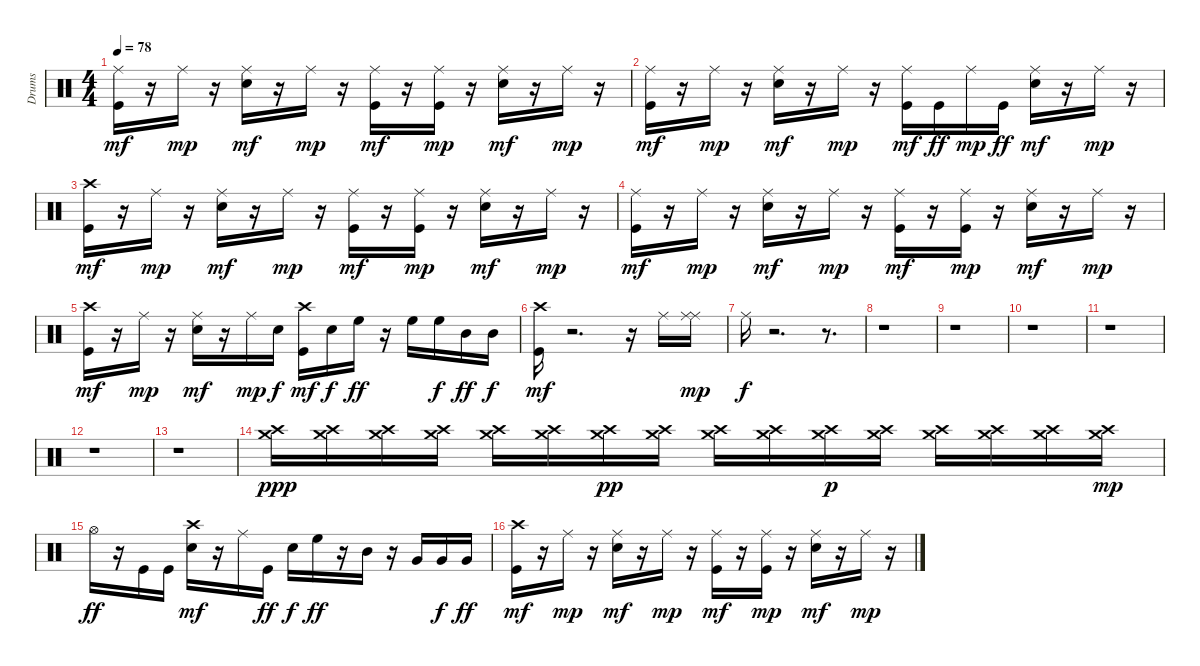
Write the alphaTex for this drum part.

\track ("Drums" "Drums") {instrument percussion}
\staff {score}
\articulation defaults
\ts (4 4)
\tempo 78
\clef neutral
\ks c
("Kick (hit)" "Ride (middle)").16{dy mf} r.16 "Ride (middle)".16{dy mp} r.16 ("Snare (hit) 2" "Ride (middle)").16{dy mf} r.16 "Ride (middle)".16{dy mp} r.16 ("Kick (hit)" "Ride (middle)").16{dy mf} r.16 ("Kick (hit)" "Ride (middle)").16{dy mp} r.16 ("Snare (hit) 2" "Ride (middle)").16{dy mf} r.16 "Ride (middle)".16{dy mp} r.16 |
("Kick (hit)" "Ride (middle)").16{dy mf} r.16 "Ride (middle)".16{dy mp} r.16 ("Snare (hit) 2" "Ride (middle)").16{dy mf} r.16 "Ride (middle)".16{dy mp} r.16 ("Kick (hit)" "Ride (middle)").16{dy mf} "Kick (hit)".16{dy ff} "Ride (middle)".16{dy mp} "Kick (hit)".16{dy ff} ("Snare (hit) 2" "Ride (middle)").16{dy mf} r.16 "Ride (middle)".16{dy mp} r.16 |
("Kick (hit)" "Crash high (hit)").16{dy mf} r.16 "Ride (middle)".16{dy mp} r.16 ("Snare (hit) 2" "Ride (middle)").16{dy mf} r.16 "Ride (middle)".16{dy mp} r.16 ("Kick (hit)" "Ride (middle)").16{dy mf} r.16 ("Kick (hit)" "Ride (middle)").16{dy mp} r.16 ("Snare (hit) 2" "Ride (middle)").16{dy mf} r.16 "Ride (middle)".16{dy mp} r.16 |
("Kick (hit)" "Ride (middle)").16{dy mf} r.16 "Ride (middle)".16{dy mp} r.16 ("Snare (hit) 2" "Ride (middle)").16{dy mf} r.16 "Ride (middle)".16{dy mp} r.16 ("Kick (hit)" "Ride (middle)").16{dy mf} r.16 ("Kick (hit)" "Ride (middle)").16{dy mp} r.16 ("Snare (hit) 2" "Ride (middle)").16{dy mf} r.16 "Ride (middle)".16{dy mp} r.16 |
("Kick (hit)" "Crash high (hit)").16{dy mf} r.16 "Ride (middle)".16{dy mp} r.16 ("Snare (hit) 2" "Ride (middle)").16{dy mf} r.16 "Ride (middle)".16{dy mp} "Snare (hit) 2".16{dy f} ("Kick (hit)" "Crash high (hit)").16{dy mf} "Snare (hit) 2".16{dy f} "High Floor Tom (hit)".16{dy ff} r.16 "High Floor Tom (hit)".16 "High Floor Tom (hit)".16{dy f} "Mid Tom (hit)".16{dy ff} "Mid Tom (hit)".16{dy f} |
("Kick (hit)" "Crash high (hit)").16{dy mf} r.2{d} r.16 "Ride (middle)".16 ("Ride (middle)" "Ride (middle)").16{dy mp} |
"Ride (middle)".16{dy f} r.2{d} r.8{d} |
r.1 |
r.1 |
r.1 |
r.1 |
r.1 |
r.1 |
("Crash high (hit)" "Crash medium (hit)").16{dy ppp} ("Crash high (hit)" "Crash medium (hit)").16 ("Crash high (hit)" "Crash medium (hit)").16 ("Crash high (hit)" "Crash medium (hit)").16 ("Crash high (hit)" "Crash medium (hit)").16 ("Crash high (hit)" "Crash medium (hit)").16 ("Crash high (hit)" "Crash medium (hit)").16{dy pp} ("Crash high (hit)" "Crash medium (hit)").16 ("Crash high (hit)" "Crash medium (hit)").16 ("Crash high (hit)" "Crash medium (hit)").16 ("Crash high (hit)" "Crash medium (hit)").16{dy p} ("Crash high (hit)" "Crash medium (hit)").16 ("Crash high (hit)" "Crash medium (hit)").16 ("Crash high (hit)" "Crash medium (hit)").16 ("Crash high (hit)" "Crash medium (hit)").16 ("Crash high (hit)" "Crash medium (hit)").16{dy mp} |
"Hi-Hat (open)".16{dy ff} r.16 "Kick (hit)".16 "Kick (hit)".16 ("Snare (hit) 2" "Crash high (hit)").16{dy mf} r.16 "Ride (middle)".16 "Kick (hit)".16{dy ff} "Snare (hit) 2".16{dy f} "High Floor Tom (hit)".16{dy ff} r.16 "Mid Tom (hit)".16 r.16 "Very Low Tom (hit)".16 "Very Low Tom (hit)".16{dy f} "Very Low Tom (hit)".16{dy ff} |
("Kick (hit)" "Crash high (hit)").16{dy mf} r.16 "Ride (middle)".16{dy mp} r.16 ("Snare (hit) 2" "Ride (middle)").16{dy mf} r.16 "Ride (middle)".16{dy mp} r.16 ("Kick (hit)" "Ride (middle)").16{dy mf} r.16 ("Kick (hit)" "Ride (middle)").16{dy mp} r.16 ("Snare (hit) 2" "Ride (middle)").16{dy mf} r.16 "Ride (middle)".16{dy mp} r.16
